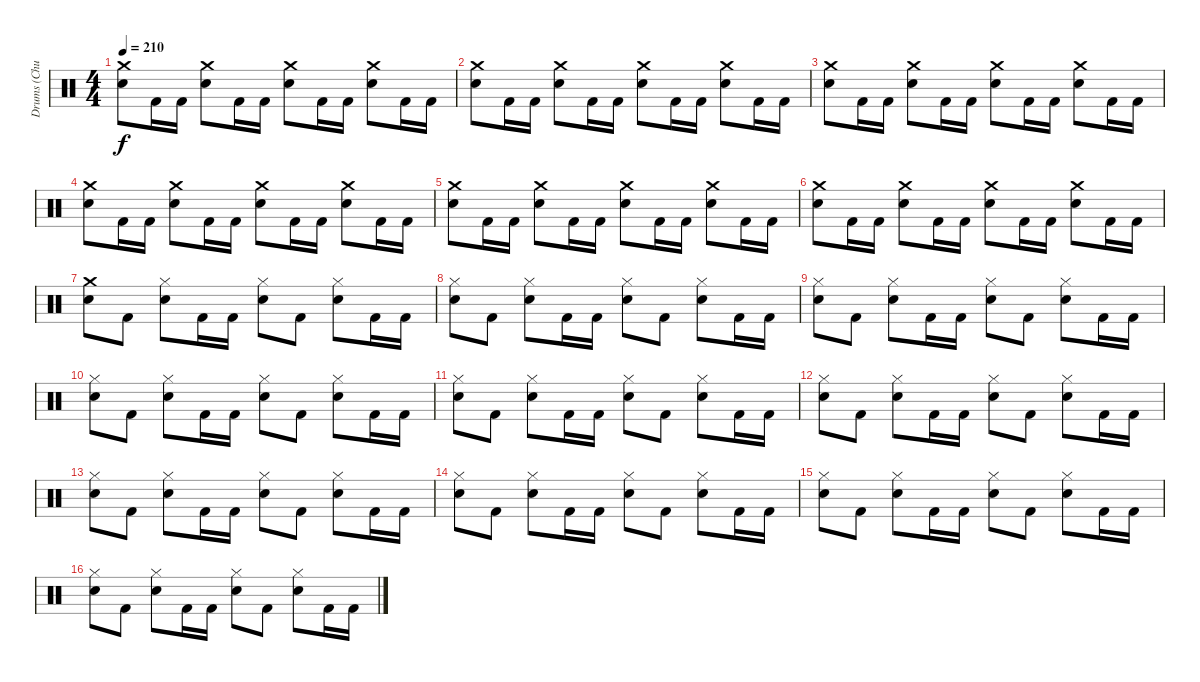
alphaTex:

\track ("Drums (Chuck Behler)" "Drums (Chu") {instrument percussion}
\staff {score}
\articulation defaults
\ts (4 4)
\tempo 210
\clef neutral
\ks c
("Crash medium (hit)" "Snare (hit) 2").8{dy f} "Kick (hit) 2".16 "Kick (hit) 2".16 ("Crash medium (hit)" "Snare (hit) 2").8 "Kick (hit) 2".16 "Kick (hit) 2".16 ("Crash medium (hit)" "Snare (hit) 2").8 "Kick (hit) 2".16 "Kick (hit) 2".16 ("Crash medium (hit)" "Snare (hit) 2").8 "Kick (hit) 2".16 "Kick (hit) 2".16 |
("Crash medium (hit)" "Snare (hit) 2").8 "Kick (hit) 2".16 "Kick (hit) 2".16 ("Crash medium (hit)" "Snare (hit) 2").8 "Kick (hit) 2".16 "Kick (hit) 2".16 ("Crash medium (hit)" "Snare (hit) 2").8 "Kick (hit) 2".16 "Kick (hit) 2".16 ("Crash medium (hit)" "Snare (hit) 2").8 "Kick (hit) 2".16 "Kick (hit) 2".16 |
("Crash medium (hit)" "Snare (hit) 2").8 "Kick (hit) 2".16 "Kick (hit) 2".16 ("Crash medium (hit)" "Snare (hit) 2").8 "Kick (hit) 2".16 "Kick (hit) 2".16 ("Crash medium (hit)" "Snare (hit) 2").8 "Kick (hit) 2".16 "Kick (hit) 2".16 ("Crash medium (hit)" "Snare (hit) 2").8 "Kick (hit) 2".16 "Kick (hit) 2".16 |
("Crash medium (hit)" "Snare (hit) 2").8 "Kick (hit) 2".16 "Kick (hit) 2".16 ("Crash medium (hit)" "Snare (hit) 2").8 "Kick (hit) 2".16 "Kick (hit) 2".16 ("Crash medium (hit)" "Snare (hit) 2").8 "Kick (hit) 2".16 "Kick (hit) 2".16 ("Crash medium (hit)" "Snare (hit) 2").8 "Kick (hit) 2".16 "Kick (hit) 2".16 |
("Crash medium (hit)" "Snare (hit) 2").8 "Kick (hit) 2".16 "Kick (hit) 2".16 ("Crash medium (hit)" "Snare (hit) 2").8 "Kick (hit) 2".16 "Kick (hit) 2".16 ("Crash medium (hit)" "Snare (hit) 2").8 "Kick (hit) 2".16 "Kick (hit) 2".16 ("Crash medium (hit)" "Snare (hit) 2").8 "Kick (hit) 2".16 "Kick (hit) 2".16 |
("Crash medium (hit)" "Snare (hit) 2").8 "Kick (hit) 2".16 "Kick (hit) 2".16 ("Crash medium (hit)" "Snare (hit) 2").8 "Kick (hit) 2".16 "Kick (hit) 2".16 ("Crash medium (hit)" "Snare (hit) 2").8 "Kick (hit) 2".16 "Kick (hit) 2".16 ("Crash medium (hit)" "Snare (hit) 2").8 "Kick (hit) 2".16 "Kick (hit) 2".16 |
("Crash medium (hit)" "Snare (hit) 2").8 "Kick (hit) 2".8 ("Hi-Hat (closed)" "Snare (hit) 2").8 "Kick (hit) 2".16 "Kick (hit) 2".16 ("Hi-Hat (closed)" "Snare (hit) 2").8 "Kick (hit) 2".8 ("Hi-Hat (closed)" "Snare (hit) 2").8 "Kick (hit) 2".16 "Kick (hit) 2".16 |
("Hi-Hat (closed)" "Snare (hit) 2").8 "Kick (hit) 2".8 ("Hi-Hat (closed)" "Snare (hit) 2").8 "Kick (hit) 2".16 "Kick (hit) 2".16 ("Hi-Hat (closed)" "Snare (hit) 2").8 "Kick (hit) 2".8 ("Hi-Hat (closed)" "Snare (hit) 2").8 "Kick (hit) 2".16 "Kick (hit) 2".16 |
("Hi-Hat (closed)" "Snare (hit) 2").8 "Kick (hit) 2".8 ("Hi-Hat (closed)" "Snare (hit) 2").8 "Kick (hit) 2".16 "Kick (hit) 2".16 ("Hi-Hat (closed)" "Snare (hit) 2").8 "Kick (hit) 2".8 ("Hi-Hat (closed)" "Snare (hit) 2").8 "Kick (hit) 2".16 "Kick (hit) 2".16 |
("Hi-Hat (closed)" "Snare (hit) 2").8 "Kick (hit) 2".8 ("Hi-Hat (closed)" "Snare (hit) 2").8 "Kick (hit) 2".16 "Kick (hit) 2".16 ("Hi-Hat (closed)" "Snare (hit) 2").8 "Kick (hit) 2".8 ("Hi-Hat (closed)" "Snare (hit) 2").8 "Kick (hit) 2".16 "Kick (hit) 2".16 |
("Hi-Hat (closed)" "Snare (hit) 2").8 "Kick (hit) 2".8 ("Hi-Hat (closed)" "Snare (hit) 2").8 "Kick (hit) 2".16 "Kick (hit) 2".16 ("Hi-Hat (closed)" "Snare (hit) 2").8 "Kick (hit) 2".8 ("Hi-Hat (closed)" "Snare (hit) 2").8 "Kick (hit) 2".16 "Kick (hit) 2".16 |
("Hi-Hat (closed)" "Snare (hit) 2").8 "Kick (hit) 2".8 ("Hi-Hat (closed)" "Snare (hit) 2").8 "Kick (hit) 2".16 "Kick (hit) 2".16 ("Hi-Hat (closed)" "Snare (hit) 2").8 "Kick (hit) 2".8 ("Hi-Hat (closed)" "Snare (hit) 2").8 "Kick (hit) 2".16 "Kick (hit) 2".16 |
("Hi-Hat (closed)" "Snare (hit) 2").8 "Kick (hit) 2".8 ("Hi-Hat (closed)" "Snare (hit) 2").8 "Kick (hit) 2".16 "Kick (hit) 2".16 ("Hi-Hat (closed)" "Snare (hit) 2").8 "Kick (hit) 2".8 ("Hi-Hat (closed)" "Snare (hit) 2").8 "Kick (hit) 2".16 "Kick (hit) 2".16 |
("Hi-Hat (closed)" "Snare (hit) 2").8 "Kick (hit) 2".8 ("Hi-Hat (closed)" "Snare (hit) 2").8 "Kick (hit) 2".16 "Kick (hit) 2".16 ("Hi-Hat (closed)" "Snare (hit) 2").8 "Kick (hit) 2".8 ("Hi-Hat (closed)" "Snare (hit) 2").8 "Kick (hit) 2".16 "Kick (hit) 2".16 |
("Hi-Hat (closed)" "Snare (hit) 2").8 "Kick (hit) 2".8 ("Hi-Hat (closed)" "Snare (hit) 2").8 "Kick (hit) 2".16 "Kick (hit) 2".16 ("Hi-Hat (closed)" "Snare (hit) 2").8 "Kick (hit) 2".8 ("Hi-Hat (closed)" "Snare (hit) 2").8 "Kick (hit) 2".16 "Kick (hit) 2".16 |
("Hi-Hat (closed)" "Snare (hit) 2").8 "Kick (hit) 2".8 ("Hi-Hat (closed)" "Snare (hit) 2").8 "Kick (hit) 2".16 "Kick (hit) 2".16 ("Hi-Hat (closed)" "Snare (hit) 2").8 "Kick (hit) 2".8 ("Hi-Hat (closed)" "Snare (hit) 2").8 "Kick (hit) 2".16 "Kick (hit) 2".16
